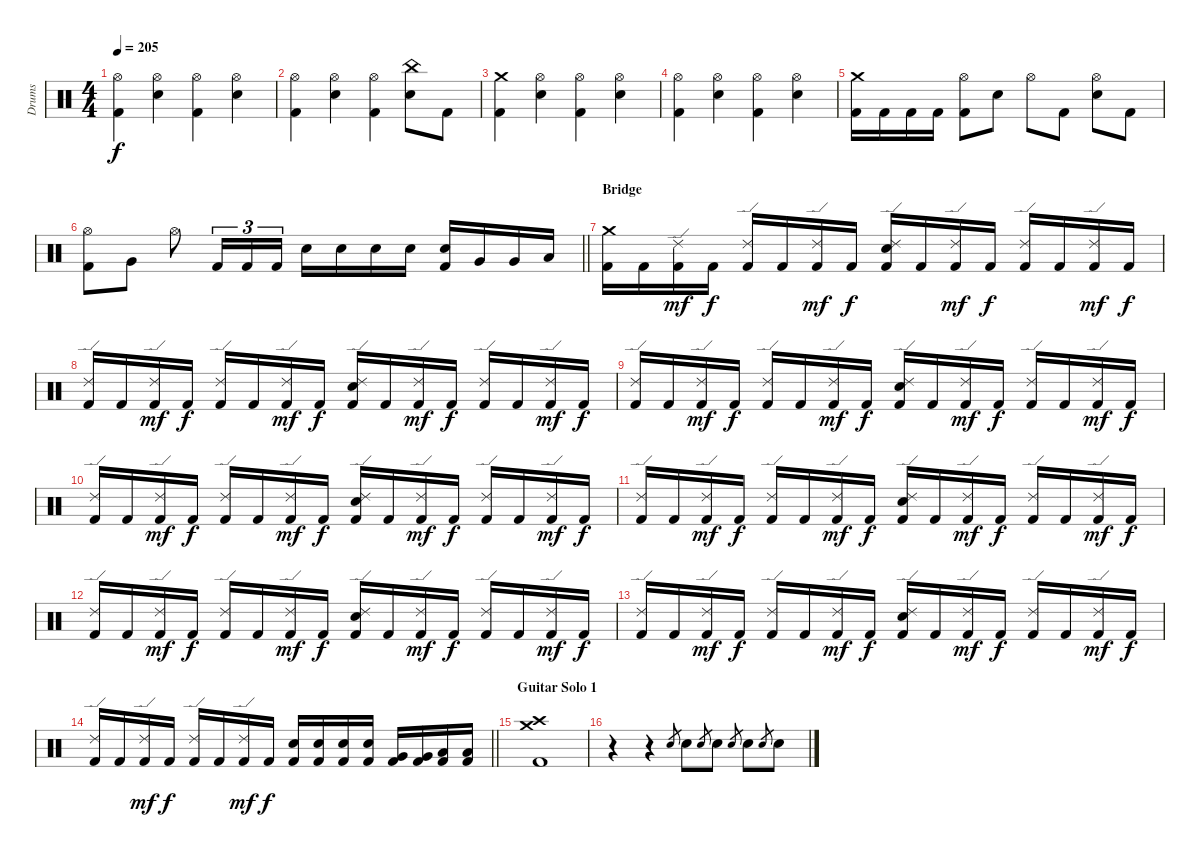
\track ("Drums" "Drums") {instrument percussion}
\staff {score}
\articulation defaults
\ts (4 4)
\tempo 205
\clef neutral
\ks c
("Hi-Hat (open)" "Kick (hit) 2").4{dy f} ("Hi-Hat (open)" "Electric Snare (hit)").4 ("Hi-Hat (open)" "Kick (hit) 2").4 ("Hi-Hat (open)" "Electric Snare (hit)").4 |
("Hi-Hat (open)" "Kick (hit) 2").4 ("Hi-Hat (open)" "Electric Snare (hit)").4 ("Hi-Hat (open)" "Kick (hit) 2").4 ("China (hit)" "Electric Snare (hit)").8 "Kick (hit) 2".8 |
("Crash medium (hit)" "Kick (hit) 2").4 ("Hi-Hat (open)" "Electric Snare (hit)").4 ("Hi-Hat (open)" "Kick (hit) 2").4 ("Hi-Hat (open)" "Electric Snare (hit)").4 |
("Hi-Hat (open)" "Kick (hit) 2").4 ("Hi-Hat (open)" "Electric Snare (hit)").4 ("Hi-Hat (open)" "Kick (hit) 2").4 ("Hi-Hat (open)" "Electric Snare (hit)").4 |
("Crash medium (hit)" "Kick (hit) 2").16 "Kick (hit) 2".16 "Kick (hit) 2".16 "Kick (hit) 2".16 ("Hi-Hat (open)" "Kick (hit) 2").8 "Electric Snare (hit)".8 "Hi-Hat (open)".8 "Kick (hit) 2".8 ("Hi-Hat (open)" "Electric Snare (hit)").8 "Kick (hit) 2".8 |
\barLineRight lightlight
("Hi-Hat (open)" "Kick (hit) 2").8 "Very Low Tom (hit)".8 "Hi-Hat (open)".8 "Kick (hit) 2".16{tu (3 2)} "Kick (hit) 2".16{tu (3 2)} "Kick (hit) 2".16{tu (3 2)} "Electric Snare (hit)".16 "Electric Snare (hit)".16 "Electric Snare (hit)".16 "Electric Snare (hit)".16 ("Electric Snare (hit)" "Kick (hit) 2").16 "Very Low Tom (hit)".16 "Very Low Tom (hit)".16 "Low Floor Tom (hit)".16 |
\section ("" "Bridge")
("Crash medium (hit)" "Kick (hit) 2").16 "Kick (hit) 2".16 ("Ride (edge) 2" "Kick (hit) 2").16{dy mf} "Kick (hit) 2".16{dy f} ("Ride (edge) 2" "Kick (hit) 2").16 "Kick (hit) 2".16 ("Ride (edge) 2" "Kick (hit) 2").16{dy mf} "Kick (hit) 2".16{dy f} ("Ride (edge) 2" "Electric Snare (hit)" "Kick (hit) 2").16 "Kick (hit) 2".16 ("Ride (edge) 2" "Kick (hit) 2").16{dy mf} "Kick (hit) 2".16{dy f} ("Ride (edge) 2" "Kick (hit) 2").16 "Kick (hit) 2".16 ("Ride (edge) 2" "Kick (hit) 2").16{dy mf} "Kick (hit) 2".16{dy f} |
("Ride (edge) 2" "Kick (hit) 2").16 "Kick (hit) 2".16 ("Ride (edge) 2" "Kick (hit) 2").16{dy mf} "Kick (hit) 2".16{dy f} ("Ride (edge) 2" "Kick (hit) 2").16 "Kick (hit) 2".16 ("Ride (edge) 2" "Kick (hit) 2").16{dy mf} "Kick (hit) 2".16{dy f} ("Ride (edge) 2" "Electric Snare (hit)" "Kick (hit) 2").16 "Kick (hit) 2".16 ("Ride (edge) 2" "Kick (hit) 2").16{dy mf} "Kick (hit) 2".16{dy f} ("Ride (edge) 2" "Kick (hit) 2").16 "Kick (hit) 2".16 ("Ride (edge) 2" "Kick (hit) 2").16{dy mf} "Kick (hit) 2".16{dy f} |
("Ride (edge) 2" "Kick (hit) 2").16 "Kick (hit) 2".16 ("Ride (edge) 2" "Kick (hit) 2").16{dy mf} "Kick (hit) 2".16{dy f} ("Ride (edge) 2" "Kick (hit) 2").16 "Kick (hit) 2".16 ("Ride (edge) 2" "Kick (hit) 2").16{dy mf} "Kick (hit) 2".16{dy f} ("Ride (edge) 2" "Electric Snare (hit)" "Kick (hit) 2").16 "Kick (hit) 2".16 ("Ride (edge) 2" "Kick (hit) 2").16{dy mf} "Kick (hit) 2".16{dy f} ("Ride (edge) 2" "Kick (hit) 2").16 "Kick (hit) 2".16 ("Ride (edge) 2" "Kick (hit) 2").16{dy mf} "Kick (hit) 2".16{dy f} |
("Ride (edge) 2" "Kick (hit) 2").16 "Kick (hit) 2".16 ("Ride (edge) 2" "Kick (hit) 2").16{dy mf} "Kick (hit) 2".16{dy f} ("Ride (edge) 2" "Kick (hit) 2").16 "Kick (hit) 2".16 ("Ride (edge) 2" "Kick (hit) 2").16{dy mf} "Kick (hit) 2".16{dy f} ("Ride (edge) 2" "Electric Snare (hit)" "Kick (hit) 2").16 "Kick (hit) 2".16 ("Ride (edge) 2" "Kick (hit) 2").16{dy mf} "Kick (hit) 2".16{dy f} ("Ride (edge) 2" "Kick (hit) 2").16 "Kick (hit) 2".16 ("Ride (edge) 2" "Kick (hit) 2").16{dy mf} "Kick (hit) 2".16{dy f} |
("Ride (edge) 2" "Kick (hit) 2").16 "Kick (hit) 2".16 ("Ride (edge) 2" "Kick (hit) 2").16{dy mf} "Kick (hit) 2".16{dy f} ("Ride (edge) 2" "Kick (hit) 2").16 "Kick (hit) 2".16 ("Ride (edge) 2" "Kick (hit) 2").16{dy mf} "Kick (hit) 2".16{dy f} ("Ride (edge) 2" "Electric Snare (hit)" "Kick (hit) 2").16 "Kick (hit) 2".16 ("Ride (edge) 2" "Kick (hit) 2").16{dy mf} "Kick (hit) 2".16{dy f} ("Ride (edge) 2" "Kick (hit) 2").16 "Kick (hit) 2".16 ("Ride (edge) 2" "Kick (hit) 2").16{dy mf} "Kick (hit) 2".16{dy f} |
("Ride (edge) 2" "Kick (hit) 2").16 "Kick (hit) 2".16 ("Ride (edge) 2" "Kick (hit) 2").16{dy mf} "Kick (hit) 2".16{dy f} ("Ride (edge) 2" "Kick (hit) 2").16 "Kick (hit) 2".16 ("Ride (edge) 2" "Kick (hit) 2").16{dy mf} "Kick (hit) 2".16{dy f} ("Ride (edge) 2" "Electric Snare (hit)" "Kick (hit) 2").16 "Kick (hit) 2".16 ("Ride (edge) 2" "Kick (hit) 2").16{dy mf} "Kick (hit) 2".16{dy f} ("Ride (edge) 2" "Kick (hit) 2").16 "Kick (hit) 2".16 ("Ride (edge) 2" "Kick (hit) 2").16{dy mf} "Kick (hit) 2".16{dy f} |
("Ride (edge) 2" "Kick (hit) 2").16 "Kick (hit) 2".16 ("Ride (edge) 2" "Kick (hit) 2").16{dy mf} "Kick (hit) 2".16{dy f} ("Ride (edge) 2" "Kick (hit) 2").16 "Kick (hit) 2".16 ("Ride (edge) 2" "Kick (hit) 2").16{dy mf} "Kick (hit) 2".16{dy f} ("Ride (edge) 2" "Electric Snare (hit)" "Kick (hit) 2").16 "Kick (hit) 2".16 ("Ride (edge) 2" "Kick (hit) 2").16{dy mf} "Kick (hit) 2".16{dy f} ("Ride (edge) 2" "Kick (hit) 2").16 "Kick (hit) 2".16 ("Ride (edge) 2" "Kick (hit) 2").16{dy mf} "Kick (hit) 2".16{dy f} |
\barLineRight lightlight
("Ride (edge) 2" "Kick (hit) 2").16 "Kick (hit) 2".16 ("Ride (edge) 2" "Kick (hit) 2").16{dy mf} "Kick (hit) 2".16{dy f} ("Ride (edge) 2" "Kick (hit) 2").16 "Kick (hit) 2".16 ("Ride (edge) 2" "Kick (hit) 2").16{dy mf} "Kick (hit) 2".16{dy f} ("Electric Snare (hit)" "Kick (hit) 2").16 ("Electric Snare (hit)" "Kick (hit) 2").16 ("Electric Snare (hit)" "Kick (hit) 2").16 ("Electric Snare (hit)" "Kick (hit) 2").16 ("Very Low Tom (hit)" "Kick (hit) 2").16 ("Very Low Tom (hit)" "Kick (hit) 2").16 ("Low Floor Tom (hit)" "Kick (hit) 2").16 ("Low Floor Tom (hit)" "Kick (hit) 2").16 |
\section ("" "Guitar Solo 1")
("Crash medium (hit)" "Crash high (hit)" "Kick (hit) 2").1 |
r.4 r.4 "Electric Snare (hit)".8{gr} "Electric Snare (hit)".8 "Electric Snare (hit)".8{gr} "Electric Snare (hit)".8 "Electric Snare (hit)".8{gr} "Electric Snare (hit)".8 "Electric Snare (hit)".8{gr} "Electric Snare (hit)".8
